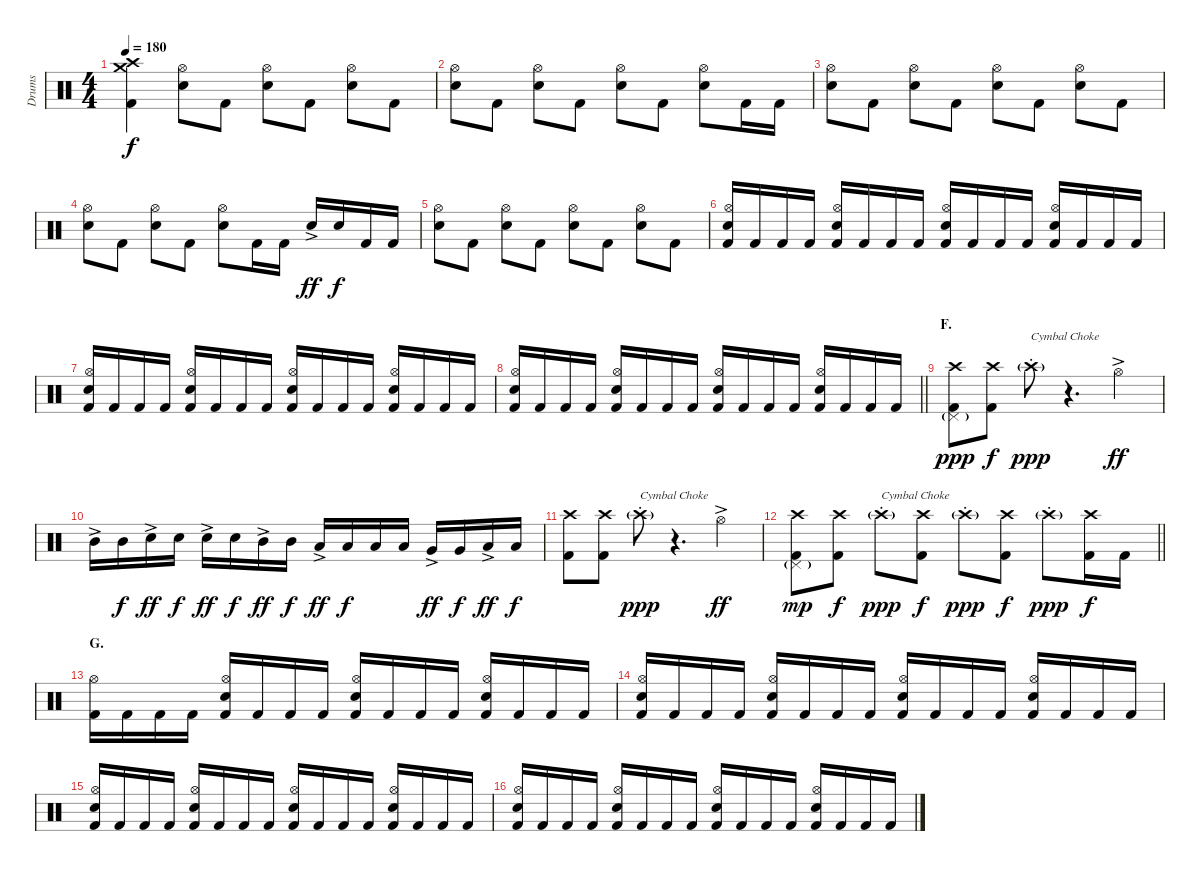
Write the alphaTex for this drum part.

\track ("Drums" "Drums") {instrument percussion}
\staff {score}
\articulation defaults
\ts (4 4)
\tempo 180
\clef neutral
\ks c
("Crash medium (hit)" "Crash high (hit)" "Kick (hit) 2").4{dy f} ("Hi-Hat (open)" "Electric Snare (hit)").8 "Kick (hit) 2".8 ("Hi-Hat (open)" "Electric Snare (hit)").8 "Kick (hit) 2".8 ("Hi-Hat (open)" "Electric Snare (hit)").8 "Kick (hit) 2".8 |
("Hi-Hat (open)" "Electric Snare (hit)").8 "Kick (hit) 2".8 ("Hi-Hat (open)" "Electric Snare (hit)").8 "Kick (hit) 2".8 ("Hi-Hat (open)" "Electric Snare (hit)").8 "Kick (hit) 2".8 ("Hi-Hat (open)" "Electric Snare (hit)").8 "Kick (hit) 2".16 "Kick (hit) 2".16 |
("Hi-Hat (open)" "Electric Snare (hit)").8 "Kick (hit) 2".8 ("Hi-Hat (open)" "Electric Snare (hit)").8 "Kick (hit) 2".8 ("Hi-Hat (open)" "Electric Snare (hit)").8 "Kick (hit) 2".8 ("Hi-Hat (open)" "Electric Snare (hit)").8 "Kick (hit) 2".8 |
("Hi-Hat (open)" "Electric Snare (hit)").8 "Kick (hit) 2".8 ("Hi-Hat (open)" "Electric Snare (hit)").8 "Kick (hit) 2".8 ("Hi-Hat (open)" "Electric Snare (hit)").8 "Kick (hit) 2".16 "Kick (hit) 2".16 "Electric Snare (hit)"{ac}.16{dy ff} "Electric Snare (hit)".16{dy f} "Kick (hit) 2".16 "Kick (hit) 2".16 |
("Hi-Hat (open)" "Electric Snare (hit)").8 "Kick (hit) 2".8 ("Hi-Hat (open)" "Electric Snare (hit)").8 "Kick (hit) 2".8 ("Hi-Hat (open)" "Electric Snare (hit)").8 "Kick (hit) 2".8 ("Hi-Hat (open)" "Electric Snare (hit)").8 "Kick (hit) 2".8 |
("Hi-Hat (open)" "Electric Snare (hit)" "Kick (hit) 2").16 "Kick (hit) 2".16 "Kick (hit) 2".16 "Kick (hit) 2".16 ("Hi-Hat (open)" "Electric Snare (hit)" "Kick (hit) 2").16 "Kick (hit) 2".16 "Kick (hit) 2".16 "Kick (hit) 2".16 ("Hi-Hat (open)" "Electric Snare (hit)" "Kick (hit) 2").16 "Kick (hit) 2".16 "Kick (hit) 2".16 "Kick (hit) 2".16 ("Hi-Hat (open)" "Electric Snare (hit)" "Kick (hit) 2").16 "Kick (hit) 2".16 "Kick (hit) 2".16 "Kick (hit) 2".16 |
("Hi-Hat (open)" "Electric Snare (hit)" "Kick (hit) 2").16 "Kick (hit) 2".16 "Kick (hit) 2".16 "Kick (hit) 2".16 ("Hi-Hat (open)" "Electric Snare (hit)" "Kick (hit) 2").16 "Kick (hit) 2".16 "Kick (hit) 2".16 "Kick (hit) 2".16 ("Hi-Hat (open)" "Electric Snare (hit)" "Kick (hit) 2").16 "Kick (hit) 2".16 "Kick (hit) 2".16 "Kick (hit) 2".16 ("Hi-Hat (open)" "Electric Snare (hit)" "Kick (hit) 2").16 "Kick (hit) 2".16 "Kick (hit) 2".16 "Kick (hit) 2".16 |
\barLineRight lightlight
("Hi-Hat (open)" "Electric Snare (hit)" "Kick (hit) 2").16 "Kick (hit) 2".16 "Kick (hit) 2".16 "Kick (hit) 2".16 ("Hi-Hat (open)" "Electric Snare (hit)" "Kick (hit) 2").16 "Kick (hit) 2".16 "Kick (hit) 2".16 "Kick (hit) 2".16 ("Hi-Hat (open)" "Electric Snare (hit)" "Kick (hit) 2").16 "Kick (hit) 2".16 "Kick (hit) 2".16 "Kick (hit) 2".16 ("Hi-Hat (open)" "Electric Snare (hit)" "Kick (hit) 2").16 "Kick (hit) 2".16 "Kick (hit) 2".16 "Kick (hit) 2".16 |
\section ("" "F.")
("Crash high (hit)" "Pedal Hi-Hat (hit)"{g} "Kick (hit) 2").8{dy ppp} ("Crash high (hit)" "Kick (hit) 2").8{dy f} "Crash high (hit)"{g st}.8{txt "Cymbal Choke" dy ppp} r.4{d} "Hi-Hat (open)"{ac}.4{dy ff} |
"Mid Tom (hit)"{ac}.16 "Mid Tom (hit)".16{dy f} "Electric Snare (hit)"{ac}.16{dy ff} "Electric Snare (hit)".16{dy f} "Electric Snare (hit)"{ac}.16{dy ff} "Electric Snare (hit)".16{dy f} "Mid Tom (hit)"{ac}.16{dy ff} "Mid Tom (hit)".16{dy f} "Low Tom (hit)"{ac}.16{dy ff} "Low Tom (hit)".16{dy f} "Low Tom (hit)".16 "Low Tom (hit)".16 "Very Low Tom (hit)"{ac}.16{dy ff} "Very Low Tom (hit)".16{dy f} "Low Floor Tom (hit)"{ac}.16{dy ff} "Low Floor Tom (hit)".16{dy f} |
("Crash high (hit)" "Kick (hit) 2").8 ("Crash high (hit)" "Kick (hit) 2").8 "Crash high (hit)"{g st}.8{txt "Cymbal Choke" dy ppp} r.4{d} "Hi-Hat (open)"{ac}.4{dy ff} |
\barLineRight lightlight
("Crash high (hit)" "Pedal Hi-Hat (hit)"{g} "Kick (hit) 2").8{dy mp} ("Crash high (hit)" "Kick (hit) 2").8{dy f} "Crash high (hit)"{g st}.8{txt "Cymbal Choke" dy ppp} ("Crash high (hit)" "Kick (hit) 2").8{dy f} "Crash high (hit)"{g st}.8{dy ppp} ("Crash high (hit)" "Kick (hit) 2").8{dy f} "Crash high (hit)"{g st}.8{dy ppp} ("Crash high (hit)" "Kick (hit) 2").16{dy f} "Kick (hit) 2".16 |
\section ("" "G.")
("Hi-Hat (open)" "Kick (hit) 2").16 "Kick (hit) 2".16 "Kick (hit) 2".16 "Kick (hit) 2".16 ("Hi-Hat (open)" "Electric Snare (hit)" "Kick (hit) 2").16 "Kick (hit) 2".16 "Kick (hit) 2".16 "Kick (hit) 2".16 ("Hi-Hat (open)" "Electric Snare (hit)" "Kick (hit) 2").16 "Kick (hit) 2".16 "Kick (hit) 2".16 "Kick (hit) 2".16 ("Hi-Hat (open)" "Electric Snare (hit)" "Kick (hit) 2").16 "Kick (hit) 2".16 "Kick (hit) 2".16 "Kick (hit) 2".16 |
("Hi-Hat (open)" "Electric Snare (hit)" "Kick (hit) 2").16 "Kick (hit) 2".16 "Kick (hit) 2".16 "Kick (hit) 2".16 ("Hi-Hat (open)" "Electric Snare (hit)" "Kick (hit) 2").16 "Kick (hit) 2".16 "Kick (hit) 2".16 "Kick (hit) 2".16 ("Hi-Hat (open)" "Electric Snare (hit)" "Kick (hit) 2").16 "Kick (hit) 2".16 "Kick (hit) 2".16 "Kick (hit) 2".16 ("Hi-Hat (open)" "Electric Snare (hit)" "Kick (hit) 2").16 "Kick (hit) 2".16 "Kick (hit) 2".16 "Kick (hit) 2".16 |
("Hi-Hat (open)" "Electric Snare (hit)" "Kick (hit) 2").16 "Kick (hit) 2".16 "Kick (hit) 2".16 "Kick (hit) 2".16 ("Hi-Hat (open)" "Electric Snare (hit)" "Kick (hit) 2").16 "Kick (hit) 2".16 "Kick (hit) 2".16 "Kick (hit) 2".16 ("Hi-Hat (open)" "Electric Snare (hit)" "Kick (hit) 2").16 "Kick (hit) 2".16 "Kick (hit) 2".16 "Kick (hit) 2".16 ("Hi-Hat (open)" "Electric Snare (hit)" "Kick (hit) 2").16 "Kick (hit) 2".16 "Kick (hit) 2".16 "Kick (hit) 2".16 |
("Hi-Hat (open)" "Electric Snare (hit)" "Kick (hit) 2").16 "Kick (hit) 2".16 "Kick (hit) 2".16 "Kick (hit) 2".16 ("Hi-Hat (open)" "Electric Snare (hit)" "Kick (hit) 2").16 "Kick (hit) 2".16 "Kick (hit) 2".16 "Kick (hit) 2".16 ("Hi-Hat (open)" "Electric Snare (hit)" "Kick (hit) 2").16 "Kick (hit) 2".16 "Kick (hit) 2".16 "Kick (hit) 2".16 ("Hi-Hat (open)" "Electric Snare (hit)" "Kick (hit) 2").16 "Kick (hit) 2".16 "Kick (hit) 2".16 "Kick (hit) 2".16
